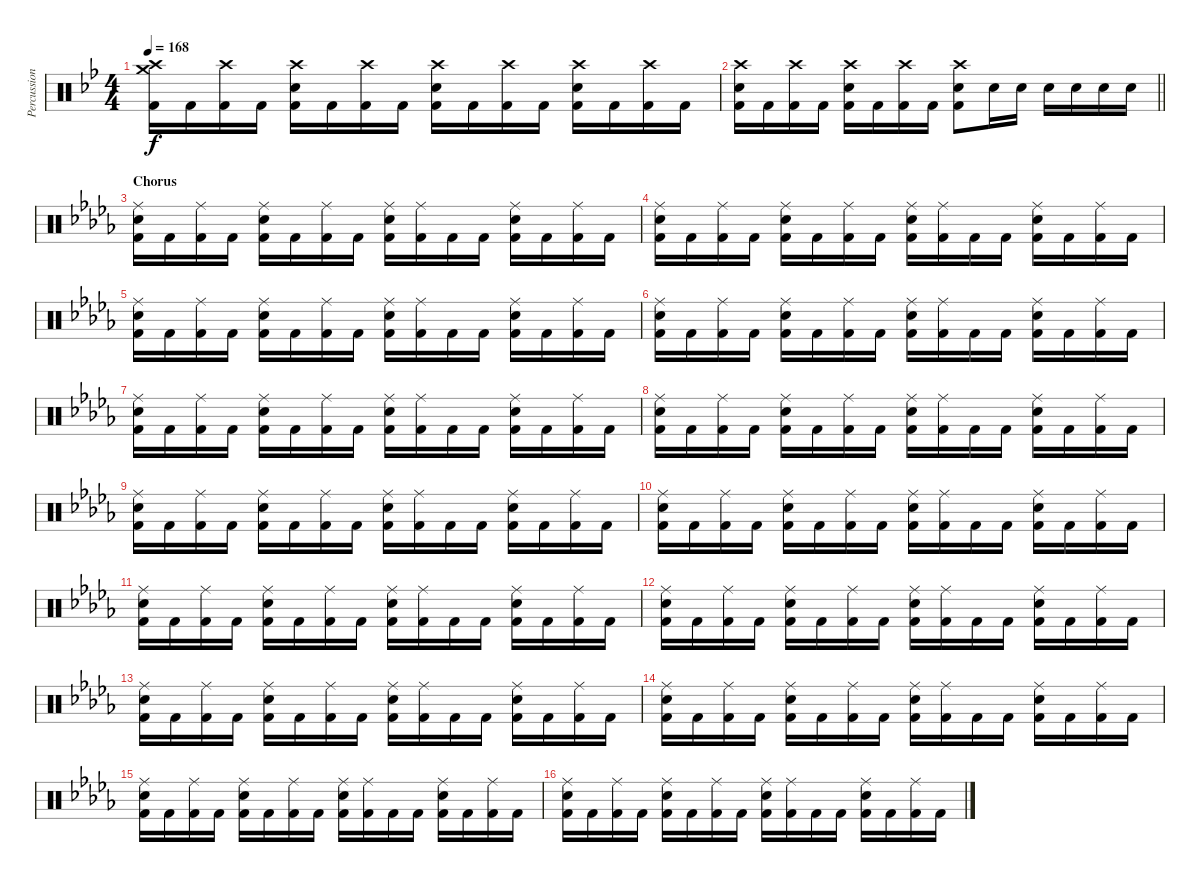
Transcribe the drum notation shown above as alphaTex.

\track ("Percussion" "Percussion") {instrument percussion}
\staff {score}
\articulation defaults
\ts (4 4)
\tempo 168
\clef neutral
\ks bb
("Crash high (hit)" "Crash medium (hit)" "Kick (hit) 2").16{dy f} "Kick (hit) 2".16 ("Crash high (hit)" "Kick (hit) 2").16 "Kick (hit) 2".16 ("Crash high (hit)" "Snare (hit) 2" "Kick (hit) 2").16 "Kick (hit) 2".16 ("Crash high (hit)" "Kick (hit) 2").16 "Kick (hit) 2".16 ("Crash high (hit)" "Snare (hit) 2" "Kick (hit) 2").16 "Kick (hit) 2".16 ("Crash high (hit)" "Kick (hit) 2").16 "Kick (hit) 2".16 ("Crash high (hit)" "Snare (hit) 2" "Kick (hit) 2").16 "Kick (hit) 2".16 ("Crash high (hit)" "Kick (hit) 2").16 "Kick (hit) 2".16 |
\barLineRight lightlight
("Crash high (hit)" "Snare (hit) 2" "Kick (hit) 2").16 "Kick (hit) 2".16 ("Crash high (hit)" "Kick (hit) 2").16 "Kick (hit) 2".16 ("Crash high (hit)" "Snare (hit) 2" "Kick (hit) 2").16 "Kick (hit) 2".16 ("Crash high (hit)" "Kick (hit) 2").16 "Kick (hit) 2".16 ("Crash high (hit)" "Snare (hit) 2" "Kick (hit) 2").8 "Snare (hit) 2".16 "Snare (hit) 2".16 "Snare (hit) 2".16 "Snare (hit) 2".16 "Snare (hit) 2".16 "Snare (hit) 2".16 |
\section ("" "Chorus")
\ks db
("Ride (middle)" "Snare (hit) 2" "Kick (hit) 2").16 "Kick (hit) 2".16 ("Ride (middle)" "Kick (hit) 2").16 "Kick (hit) 2".16 ("Ride (middle)" "Snare (hit) 2" "Kick (hit) 2").16 "Kick (hit) 2".16 ("Ride (middle)" "Kick (hit) 2").16 "Kick (hit) 2".16 ("Ride (middle)" "Snare (hit) 2" "Kick (hit) 2").16 ("Ride (middle)" "Kick (hit) 2").16 "Kick (hit) 2".16 "Kick (hit) 2".16 ("Ride (middle)" "Snare (hit) 2" "Kick (hit) 2").16 "Kick (hit) 2".16 ("Ride (middle)" "Kick (hit) 2").16 "Kick (hit) 2".16 |
("Ride (middle)" "Snare (hit) 2" "Kick (hit) 2").16 "Kick (hit) 2".16 ("Ride (middle)" "Kick (hit) 2").16 "Kick (hit) 2".16 ("Ride (middle)" "Snare (hit) 2" "Kick (hit) 2").16 "Kick (hit) 2".16 ("Ride (middle)" "Kick (hit) 2").16 "Kick (hit) 2".16 ("Ride (middle)" "Snare (hit) 2" "Kick (hit) 2").16 ("Ride (middle)" "Kick (hit) 2").16 "Kick (hit) 2".16 "Kick (hit) 2".16 ("Ride (middle)" "Snare (hit) 2" "Kick (hit) 2").16 "Kick (hit) 2".16 ("Ride (middle)" "Kick (hit) 2").16 "Kick (hit) 2".16 |
("Ride (middle)" "Snare (hit) 2" "Kick (hit) 2").16 "Kick (hit) 2".16 ("Ride (middle)" "Kick (hit) 2").16 "Kick (hit) 2".16 ("Ride (middle)" "Snare (hit) 2" "Kick (hit) 2").16 "Kick (hit) 2".16 ("Ride (middle)" "Kick (hit) 2").16 "Kick (hit) 2".16 ("Ride (middle)" "Snare (hit) 2" "Kick (hit) 2").16 ("Ride (middle)" "Kick (hit) 2").16 "Kick (hit) 2".16 "Kick (hit) 2".16 ("Ride (middle)" "Snare (hit) 2" "Kick (hit) 2").16 "Kick (hit) 2".16 ("Ride (middle)" "Kick (hit) 2").16 "Kick (hit) 2".16 |
("Ride (middle)" "Snare (hit) 2" "Kick (hit) 2").16 "Kick (hit) 2".16 ("Ride (middle)" "Kick (hit) 2").16 "Kick (hit) 2".16 ("Ride (middle)" "Snare (hit) 2" "Kick (hit) 2").16 "Kick (hit) 2".16 ("Ride (middle)" "Kick (hit) 2").16 "Kick (hit) 2".16 ("Ride (middle)" "Snare (hit) 2" "Kick (hit) 2").16 ("Ride (middle)" "Kick (hit) 2").16 "Kick (hit) 2".16 "Kick (hit) 2".16 ("Ride (middle)" "Snare (hit) 2" "Kick (hit) 2").16 "Kick (hit) 2".16 ("Ride (middle)" "Kick (hit) 2").16 "Kick (hit) 2".16 |
("Ride (middle)" "Snare (hit) 2" "Kick (hit) 2").16 "Kick (hit) 2".16 ("Ride (middle)" "Kick (hit) 2").16 "Kick (hit) 2".16 ("Ride (middle)" "Snare (hit) 2" "Kick (hit) 2").16 "Kick (hit) 2".16 ("Ride (middle)" "Kick (hit) 2").16 "Kick (hit) 2".16 ("Ride (middle)" "Snare (hit) 2" "Kick (hit) 2").16 ("Ride (middle)" "Kick (hit) 2").16 "Kick (hit) 2".16 "Kick (hit) 2".16 ("Ride (middle)" "Snare (hit) 2" "Kick (hit) 2").16 "Kick (hit) 2".16 ("Ride (middle)" "Kick (hit) 2").16 "Kick (hit) 2".16 |
("Ride (middle)" "Snare (hit) 2" "Kick (hit) 2").16 "Kick (hit) 2".16 ("Ride (middle)" "Kick (hit) 2").16 "Kick (hit) 2".16 ("Ride (middle)" "Snare (hit) 2" "Kick (hit) 2").16 "Kick (hit) 2".16 ("Ride (middle)" "Kick (hit) 2").16 "Kick (hit) 2".16 ("Ride (middle)" "Snare (hit) 2" "Kick (hit) 2").16 ("Ride (middle)" "Kick (hit) 2").16 "Kick (hit) 2".16 "Kick (hit) 2".16 ("Ride (middle)" "Snare (hit) 2" "Kick (hit) 2").16 "Kick (hit) 2".16 ("Ride (middle)" "Kick (hit) 2").16 "Kick (hit) 2".16 |
("Ride (middle)" "Snare (hit) 2" "Kick (hit) 2").16 "Kick (hit) 2".16 ("Ride (middle)" "Kick (hit) 2").16 "Kick (hit) 2".16 ("Ride (middle)" "Snare (hit) 2" "Kick (hit) 2").16 "Kick (hit) 2".16 ("Ride (middle)" "Kick (hit) 2").16 "Kick (hit) 2".16 ("Ride (middle)" "Snare (hit) 2" "Kick (hit) 2").16 ("Ride (middle)" "Kick (hit) 2").16 "Kick (hit) 2".16 "Kick (hit) 2".16 ("Ride (middle)" "Snare (hit) 2" "Kick (hit) 2").16 "Kick (hit) 2".16 ("Ride (middle)" "Kick (hit) 2").16 "Kick (hit) 2".16 |
("Ride (middle)" "Snare (hit) 2" "Kick (hit) 2").16 "Kick (hit) 2".16 ("Ride (middle)" "Kick (hit) 2").16 "Kick (hit) 2".16 ("Ride (middle)" "Snare (hit) 2" "Kick (hit) 2").16 "Kick (hit) 2".16 ("Ride (middle)" "Kick (hit) 2").16 "Kick (hit) 2".16 ("Ride (middle)" "Snare (hit) 2" "Kick (hit) 2").16 ("Ride (middle)" "Kick (hit) 2").16 "Kick (hit) 2".16 "Kick (hit) 2".16 ("Ride (middle)" "Snare (hit) 2" "Kick (hit) 2").16 "Kick (hit) 2".16 ("Ride (middle)" "Kick (hit) 2").16 "Kick (hit) 2".16 |
("Ride (middle)" "Snare (hit) 2" "Kick (hit) 2").16 "Kick (hit) 2".16 ("Ride (middle)" "Kick (hit) 2").16 "Kick (hit) 2".16 ("Ride (middle)" "Snare (hit) 2" "Kick (hit) 2").16 "Kick (hit) 2".16 ("Ride (middle)" "Kick (hit) 2").16 "Kick (hit) 2".16 ("Ride (middle)" "Snare (hit) 2" "Kick (hit) 2").16 ("Ride (middle)" "Kick (hit) 2").16 "Kick (hit) 2".16 "Kick (hit) 2".16 ("Ride (middle)" "Snare (hit) 2" "Kick (hit) 2").16 "Kick (hit) 2".16 ("Ride (middle)" "Kick (hit) 2").16 "Kick (hit) 2".16 |
("Ride (middle)" "Snare (hit) 2" "Kick (hit) 2").16 "Kick (hit) 2".16 ("Ride (middle)" "Kick (hit) 2").16 "Kick (hit) 2".16 ("Ride (middle)" "Snare (hit) 2" "Kick (hit) 2").16 "Kick (hit) 2".16 ("Ride (middle)" "Kick (hit) 2").16 "Kick (hit) 2".16 ("Ride (middle)" "Snare (hit) 2" "Kick (hit) 2").16 ("Ride (middle)" "Kick (hit) 2").16 "Kick (hit) 2".16 "Kick (hit) 2".16 ("Ride (middle)" "Snare (hit) 2" "Kick (hit) 2").16 "Kick (hit) 2".16 ("Ride (middle)" "Kick (hit) 2").16 "Kick (hit) 2".16 |
("Ride (middle)" "Snare (hit) 2" "Kick (hit) 2").16 "Kick (hit) 2".16 ("Ride (middle)" "Kick (hit) 2").16 "Kick (hit) 2".16 ("Ride (middle)" "Snare (hit) 2" "Kick (hit) 2").16 "Kick (hit) 2".16 ("Ride (middle)" "Kick (hit) 2").16 "Kick (hit) 2".16 ("Ride (middle)" "Snare (hit) 2" "Kick (hit) 2").16 ("Ride (middle)" "Kick (hit) 2").16 "Kick (hit) 2".16 "Kick (hit) 2".16 ("Ride (middle)" "Snare (hit) 2" "Kick (hit) 2").16 "Kick (hit) 2".16 ("Ride (middle)" "Kick (hit) 2").16 "Kick (hit) 2".16 |
("Ride (middle)" "Snare (hit) 2" "Kick (hit) 2").16 "Kick (hit) 2".16 ("Ride (middle)" "Kick (hit) 2").16 "Kick (hit) 2".16 ("Ride (middle)" "Snare (hit) 2" "Kick (hit) 2").16 "Kick (hit) 2".16 ("Ride (middle)" "Kick (hit) 2").16 "Kick (hit) 2".16 ("Ride (middle)" "Snare (hit) 2" "Kick (hit) 2").16 ("Ride (middle)" "Kick (hit) 2").16 "Kick (hit) 2".16 "Kick (hit) 2".16 ("Ride (middle)" "Snare (hit) 2" "Kick (hit) 2").16 "Kick (hit) 2".16 ("Ride (middle)" "Kick (hit) 2").16 "Kick (hit) 2".16 |
("Ride (middle)" "Snare (hit) 2" "Kick (hit) 2").16 "Kick (hit) 2".16 ("Ride (middle)" "Kick (hit) 2").16 "Kick (hit) 2".16 ("Ride (middle)" "Snare (hit) 2" "Kick (hit) 2").16 "Kick (hit) 2".16 ("Ride (middle)" "Kick (hit) 2").16 "Kick (hit) 2".16 ("Ride (middle)" "Snare (hit) 2" "Kick (hit) 2").16 ("Ride (middle)" "Kick (hit) 2").16 "Kick (hit) 2".16 "Kick (hit) 2".16 ("Ride (middle)" "Snare (hit) 2" "Kick (hit) 2").16 "Kick (hit) 2".16 ("Ride (middle)" "Kick (hit) 2").16 "Kick (hit) 2".16 |
("Ride (middle)" "Snare (hit) 2" "Kick (hit) 2").16 "Kick (hit) 2".16 ("Ride (middle)" "Kick (hit) 2").16 "Kick (hit) 2".16 ("Ride (middle)" "Snare (hit) 2" "Kick (hit) 2").16 "Kick (hit) 2".16 ("Ride (middle)" "Kick (hit) 2").16 "Kick (hit) 2".16 ("Ride (middle)" "Snare (hit) 2" "Kick (hit) 2").16 ("Ride (middle)" "Kick (hit) 2").16 "Kick (hit) 2".16 "Kick (hit) 2".16 ("Ride (middle)" "Snare (hit) 2" "Kick (hit) 2").16 "Kick (hit) 2".16 ("Ride (middle)" "Kick (hit) 2").16 "Kick (hit) 2".16
